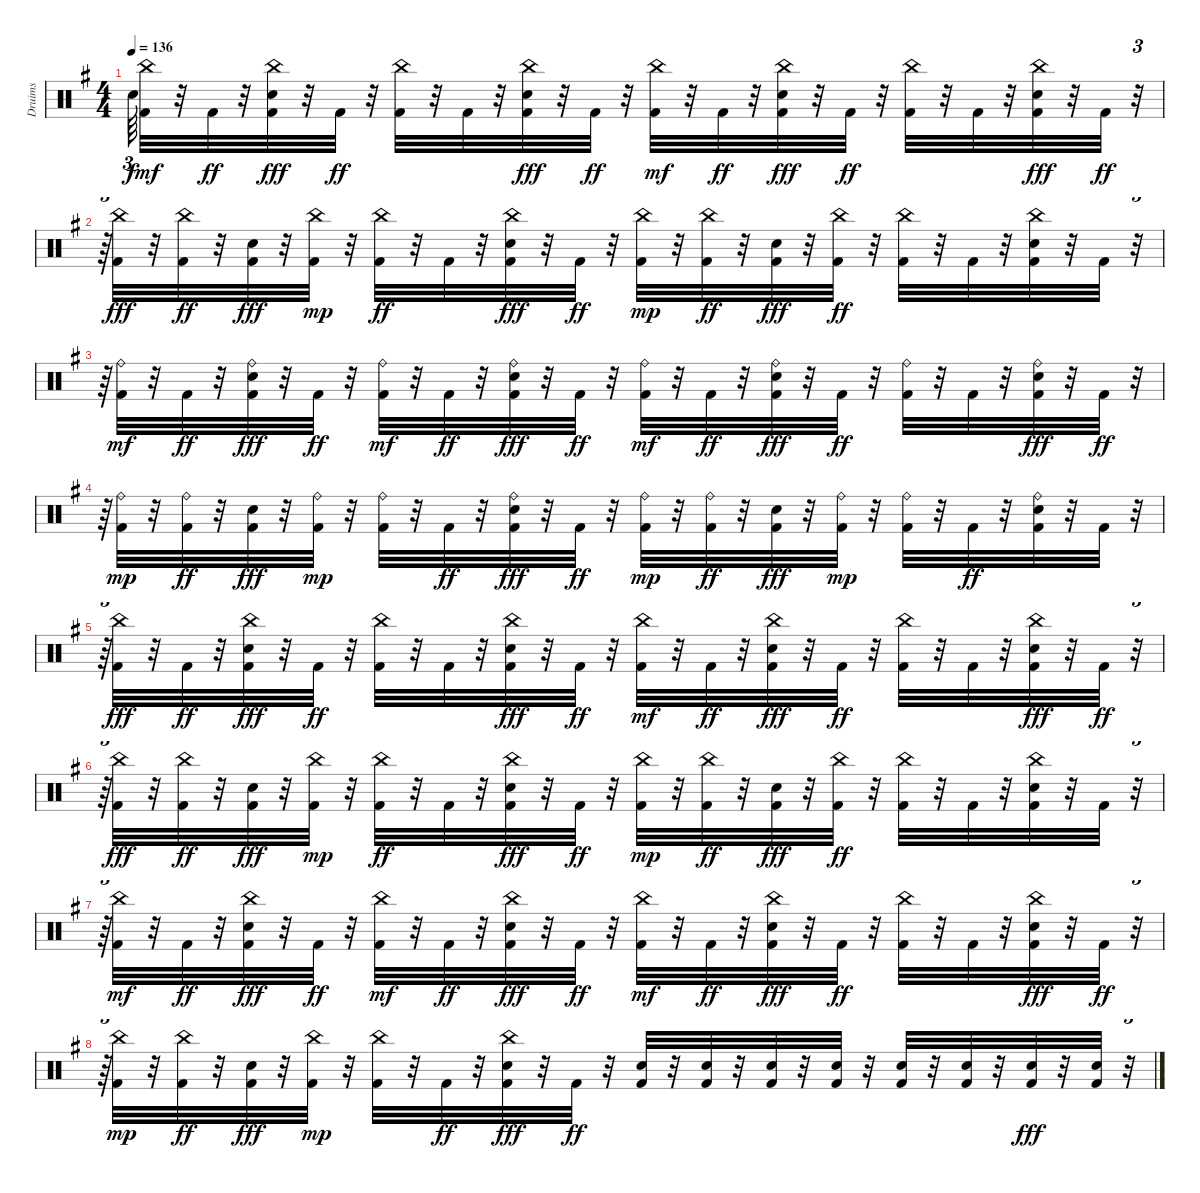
\track ("Druims" "Druims") {instrument percussion}
\staff {score}
\articulation defaults
\ts (4 4)
\tempo 136
\clef neutral
\ks eminor "Snare (hit)"{t}.64{tu (3 2) dy f}
("Kick (hit) 2" "China (hit)").32{dy mf} r.32 "Kick (hit) 2".32{dy ff} r.32 ("Kick (hit) 2" "China (hit)" "Snare (hit) 2").32{dy fff} r.32 "Kick (hit) 2".32{dy ff} r.32 ("China (hit)" "Kick (hit) 2").32 r.32 "Kick (hit) 2".32 r.32 ("Kick (hit) 2" "China (hit)" "Snare (hit) 2").32{dy fff} r.32 "Kick (hit) 2".32{dy ff} r.32 ("Kick (hit) 2" "China (hit)").32{dy mf} r.32 "Kick (hit) 2".32{dy ff} r.32 ("Kick (hit) 2" "Snare (hit) 2" "China (hit)").32{dy fff} r.32 "Kick (hit) 2".32{dy ff} r.32 ("China (hit)" "Kick (hit) 2").32 r.32 "Kick (hit) 2".32 r.32 ("Kick (hit) 2" "China (hit)" "Snare (hit) 2").32{dy fff} r.32 "Kick (hit) 2".32{dy ff} r.32{tu (3 2)} |
r.64{tu (3 2)} ("China (hit)" "Kick (hit) 2").32{dy fff} r.32 ("China (hit)" "Kick (hit) 2").32{dy ff} r.32 ("Kick (hit) 2" "Snare (hit) 2").32{dy fff} r.32 ("Kick (hit) 2" "China (hit)").32{dy mp} r.32 ("China (hit)" "Kick (hit) 2").32{dy ff} r.32 "Kick (hit) 2".32 r.32 ("Kick (hit) 2" "China (hit)" "Snare (hit) 2").32{dy fff} r.32 "Kick (hit) 2".32{dy ff} r.32 ("Kick (hit) 2" "China (hit)").32{dy mp} r.32 ("China (hit)" "Kick (hit) 2").32{dy ff} r.32 ("Kick (hit) 2" "Snare (hit) 2").32{dy fff} r.32 ("China (hit)" "Kick (hit) 2").32{dy ff} r.32 ("China (hit)" "Kick (hit) 2").32 r.32 "Kick (hit) 2".32 r.32 ("Kick (hit) 2" "Snare (hit) 2" "China (hit)").32 r.32 "Kick (hit) 2".32 r.32{tu (3 2)} |
r.64{tu (3 2)} ("Kick (hit) 2" "Ride (bell)").32{dy mf} r.32 "Kick (hit) 2".32{dy ff} r.32 ("Kick (hit) 2" "Snare (hit) 2" "Ride (bell)").32{dy fff} r.32 "Kick (hit) 2".32{dy ff} r.32 ("Kick (hit) 2" "Ride (bell)").32{dy mf} r.32 "Kick (hit) 2".32{dy ff} r.32 ("Kick (hit) 2" "Snare (hit) 2" "Ride (bell)").32{dy fff} r.32 "Kick (hit) 2".32{dy ff} r.32 ("Kick (hit) 2" "Ride (bell)").32{dy mf} r.32 "Kick (hit) 2".32{dy ff} r.32 ("Snare (hit) 2" "Kick (hit) 2" "Ride (bell)").32{dy fff} r.32 "Kick (hit) 2".32{dy ff} r.32 ("Ride (bell)" "Kick (hit) 2").32 r.32 "Kick (hit) 2".32 r.32 ("Kick (hit) 2" "Snare (hit) 2" "Ride (bell)").32{dy fff} r.32 "Kick (hit) 2".32{dy ff} r.32{tu (3 2)} |
r.64{tu (3 2)} ("Kick (hit) 2" "Ride (bell)").32{dy mp} r.32 ("Ride (bell)" "Kick (hit) 2").32{dy ff} r.32 ("Kick (hit) 2" "Snare (hit) 2").32{dy fff} r.32 ("Kick (hit) 2" "Ride (bell)").32{dy mp} r.32 ("Kick (hit) 2" "Ride (bell)").32 r.32 "Kick (hit) 2".32{dy ff} r.32 ("Kick (hit) 2" "Ride (bell)" "Snare (hit) 2").32{dy fff} r.32 "Kick (hit) 2".32{dy ff} r.32 ("Kick (hit) 2" "Ride (bell)").32{dy mp} r.32 ("Kick (hit) 2" "Ride (bell)").32{dy ff} r.32 ("Kick (hit) 2" "Snare (hit) 2").32{dy fff} r.32 ("Kick (hit) 2" "Ride (bell)").32{dy mp} r.32 ("Kick (hit) 2" "Ride (bell)").32 r.32 "Kick (hit) 2".32{dy ff} r.32 ("Kick (hit) 2" "Snare (hit) 2" "Ride (bell)").32 r.32 "Kick (hit) 2".32 r.32{tu (3 2)} |
r.64{tu (3 2)} ("China (hit)" "Kick (hit) 2").32{dy fff} r.32 "Kick (hit) 2".32{dy ff} r.32 ("Kick (hit) 2" "China (hit)" "Snare (hit) 2").32{dy fff} r.32 "Kick (hit) 2".32{dy ff} r.32 ("China (hit)" "Kick (hit) 2").32 r.32 "Kick (hit) 2".32 r.32 ("Kick (hit) 2" "China (hit)" "Snare (hit) 2").32{dy fff} r.32 "Kick (hit) 2".32{dy ff} r.32 ("Kick (hit) 2" "China (hit)").32{dy mf} r.32 "Kick (hit) 2".32{dy ff} r.32 ("Kick (hit) 2" "Snare (hit) 2" "China (hit)").32{dy fff} r.32 "Kick (hit) 2".32{dy ff} r.32 ("China (hit)" "Kick (hit) 2").32 r.32 "Kick (hit) 2".32 r.32 ("Kick (hit) 2" "China (hit)" "Snare (hit) 2").32{dy fff} r.32 "Kick (hit) 2".32{dy ff} r.32{tu (3 2)} |
r.64{tu (3 2)} ("China (hit)" "Kick (hit) 2").32{dy fff} r.32 ("China (hit)" "Kick (hit) 2").32{dy ff} r.32 ("Kick (hit) 2" "Snare (hit) 2").32{dy fff} r.32 ("Kick (hit) 2" "China (hit)").32{dy mp} r.32 ("China (hit)" "Kick (hit) 2").32{dy ff} r.32 "Kick (hit) 2".32 r.32 ("Kick (hit) 2" "China (hit)" "Snare (hit) 2").32{dy fff} r.32 "Kick (hit) 2".32{dy ff} r.32 ("Kick (hit) 2" "China (hit)").32{dy mp} r.32 ("China (hit)" "Kick (hit) 2").32{dy ff} r.32 ("Kick (hit) 2" "Snare (hit) 2").32{dy fff} r.32 ("China (hit)" "Kick (hit) 2").32{dy ff} r.32 ("China (hit)" "Kick (hit) 2").32 r.32 "Kick (hit) 2".32 r.32 ("Kick (hit) 2" "Snare (hit) 2" "China (hit)").32 r.32 "Kick (hit) 2".32 r.32{tu (3 2)} |
r.64{tu (3 2)} ("Kick (hit) 2" "China (hit)").32{dy mf} r.32 "Kick (hit) 2".32{dy ff} r.32 ("Kick (hit) 2" "Snare (hit) 2" "China (hit)").32{dy fff} r.32 "Kick (hit) 2".32{dy ff} r.32 ("Kick (hit) 2" "China (hit)").32{dy mf} r.32 "Kick (hit) 2".32{dy ff} r.32 ("Kick (hit) 2" "Snare (hit) 2" "China (hit)").32{dy fff} r.32 "Kick (hit) 2".32{dy ff} r.32 ("Kick (hit) 2" "China (hit)").32{dy mf} r.32 "Kick (hit) 2".32{dy ff} r.32 ("Snare (hit) 2" "Kick (hit) 2" "China (hit)").32{dy fff} r.32 "Kick (hit) 2".32{dy ff} r.32 ("China (hit)" "Kick (hit) 2").32 r.32 "Kick (hit) 2".32 r.32 ("Kick (hit) 2" "Snare (hit) 2" "China (hit)").32{dy fff} r.32 "Kick (hit) 2".32{dy ff} r.32{tu (3 2)} |
r.64{tu (3 2)} ("Kick (hit) 2" "China (hit)").32{dy mp} r.32 ("China (hit)" "Kick (hit) 2").32{dy ff} r.32 ("Kick (hit) 2" "Snare (hit) 2").32{dy fff} r.32 ("Kick (hit) 2" "China (hit)").32{dy mp} r.32 ("Kick (hit) 2" "China (hit)").32 r.32 "Kick (hit) 2".32{dy ff} r.32 ("Kick (hit) 2" "China (hit)" "Snare (hit) 2").32{dy fff} r.32 "Kick (hit) 2".32{dy ff} r.32 ("Snare (hit) 2" "Kick (hit) 2").32 r.32 ("Snare (hit) 2" "Kick (hit) 2").32 r.32 ("Kick (hit) 2" "Snare (hit) 2").32 r.32 ("Snare (hit) 2" "Kick (hit) 2").32 r.32 ("Snare (hit) 2" "Kick (hit) 2").32 r.32 ("Snare (hit) 2" "Kick (hit) 2").32 r.32 ("Kick (hit) 2" "Snare (hit) 2").32{dy fff} r.32 ("Kick (hit) 2" "Snare (hit) 2").32 r.32{tu (3 2)}
